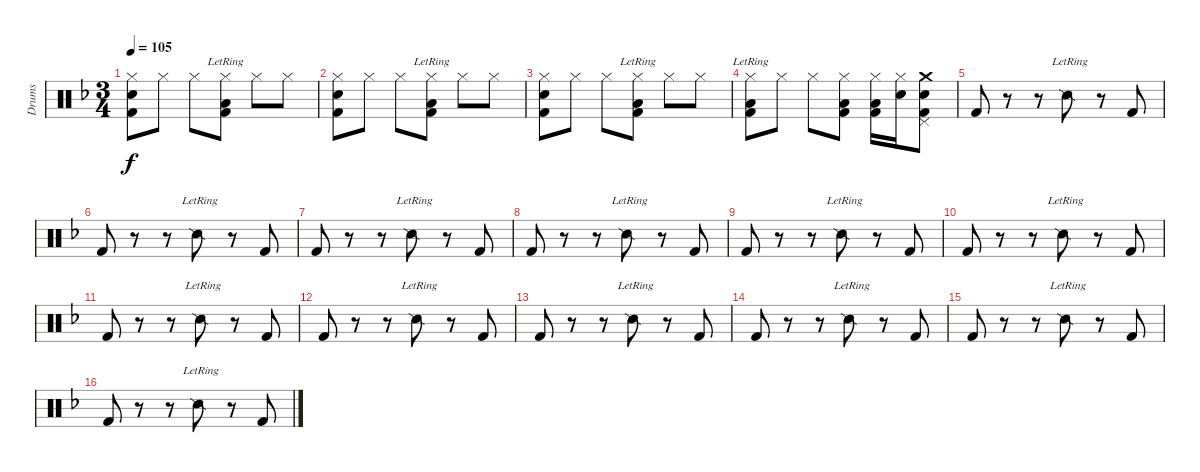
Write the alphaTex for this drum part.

\track ("Drums" "Drums") {instrument percussion}
\staff {score}
\articulation defaults
\ts (3 4)
\tempo 105
\clef neutral
\ks f
("Hi-Hat (closed)" "Snare (hit) 2" "Kick (hit) 2").8{dy f} "Hi-Hat (closed)".8 "Hi-Hat (closed)".8 ("Hi-Hat (closed)" "Low Floor Tom (hit)"{lr} "Kick (hit) 2"{lr}).8 "Hi-Hat (closed)".8 "Hi-Hat (closed)".8 |
("Hi-Hat (closed)" "Snare (hit) 2" "Kick (hit) 2").8 "Hi-Hat (closed)".8 "Hi-Hat (closed)".8 ("Hi-Hat (closed)" "Low Floor Tom (hit)"{lr} "Kick (hit) 2"{lr}).8 "Hi-Hat (closed)".8 "Hi-Hat (closed)".8 |
("Hi-Hat (closed)" "Snare (hit) 2" "Kick (hit) 2").8 "Hi-Hat (closed)".8 "Hi-Hat (closed)".8 ("Hi-Hat (closed)" "Low Floor Tom (hit)"{lr} "Kick (hit) 2"{lr}).8 "Hi-Hat (closed)".8 "Hi-Hat (closed)".8 |
("Hi-Hat (closed)" "Low Floor Tom (hit)"{lr} "Kick (hit) 2"{lr}).8 "Hi-Hat (closed)".8 "Hi-Hat (closed)".8 ("Hi-Hat (closed)" "Low Floor Tom (hit)" "Kick (hit) 2").8 ("Hi-Hat (closed)" "Low Floor Tom (hit)" "Kick (hit) 2").16 ("Hi-Hat (closed)" "Electric Snare (hit)").16 ("Pedal Hi-Hat (hit)" "Crash medium (hit)" "Electric Snare (hit)" "Kick (hit) 2").8 |
"Kick (hit) 2".8 r.8 r.8 "Snare (side stick) 2"{lr}.8 r.8 "Kick (hit) 2".8 |
"Kick (hit) 2".8 r.8 r.8 "Snare (side stick) 2"{lr}.8 r.8 "Kick (hit) 2".8 |
"Kick (hit) 2".8 r.8 r.8 "Snare (side stick) 2"{lr}.8 r.8 "Kick (hit) 2".8 |
"Kick (hit) 2".8 r.8 r.8 "Snare (side stick) 2"{lr}.8 r.8 "Kick (hit) 2".8 |
"Kick (hit) 2".8 r.8 r.8 "Snare (side stick) 2"{lr}.8 r.8 "Kick (hit) 2".8 |
"Kick (hit) 2".8 r.8 r.8 "Snare (side stick) 2"{lr}.8 r.8 "Kick (hit) 2".8 |
"Kick (hit) 2".8 r.8 r.8 "Snare (side stick) 2"{lr}.8 r.8 "Kick (hit) 2".8 |
"Kick (hit) 2".8 r.8 r.8 "Snare (side stick) 2"{lr}.8 r.8 "Kick (hit) 2".8 |
"Kick (hit) 2".8 r.8 r.8 "Snare (side stick) 2"{lr}.8 r.8 "Kick (hit) 2".8 |
"Kick (hit) 2".8 r.8 r.8 "Snare (side stick) 2"{lr}.8 r.8 "Kick (hit) 2".8 |
"Kick (hit) 2".8 r.8 r.8 "Snare (side stick) 2"{lr}.8 r.8 "Kick (hit) 2".8 |
"Kick (hit) 2".8 r.8 r.8 "Snare (side stick) 2"{lr}.8 r.8 "Kick (hit) 2".8
